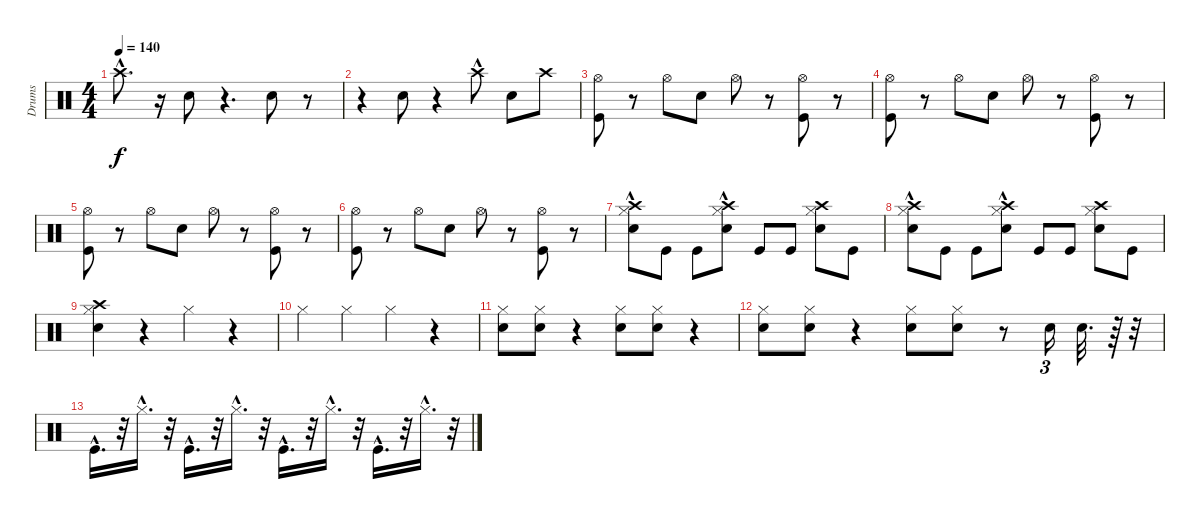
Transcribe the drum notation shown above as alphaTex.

\track ("Drums" "Drums") {instrument percussion}
\staff {score}
\articulation defaults
\ts (4 4)
\tempo 140
\clef neutral
\ks c "Crash high (hit)"{hac}.8{d dy f}
r.16 "Electric Snare (hit)".8 r.4{d} "Electric Snare (hit)".8 r.8 |
r.4 "Electric Snare (hit)".8 r.4 "Crash high (hit)"{hac}.8 "Electric Snare (hit)".8 "Crash high (hit)".8 |
("Kick (hit)" "Hi-Hat (open)").8 r.8 "Hi-Hat (open)".8 "Electric Snare (hit)".8 "Hi-Hat (open)".8 r.8 ("Kick (hit)" "Hi-Hat (open)").8 r.8 |
("Kick (hit)" "Hi-Hat (open)").8 r.8 "Hi-Hat (open)".8 "Electric Snare (hit)".8 "Hi-Hat (open)".8 r.8 ("Kick (hit)" "Hi-Hat (open)").8 r.8 |
("Kick (hit)" "Hi-Hat (open)").8 r.8 "Hi-Hat (open)".8 "Electric Snare (hit)".8 "Hi-Hat (open)".8 r.8 ("Kick (hit)" "Hi-Hat (open)").8 r.8 |
("Kick (hit)" "Hi-Hat (open)").8 r.8 "Hi-Hat (open)".8 "Electric Snare (hit)".8 "Hi-Hat (open)".8 r.8 ("Kick (hit)" "Hi-Hat (open)").8 r.8 |
("Hi-Hat (closed)"{hac} "Electric Snare (hit)" "Crash high (hit)").8 "Kick (hit)".8 "Kick (hit)".8 ("Electric Snare (hit)" "Hi-Hat (closed)"{hac} "Crash high (hit)").8 "Kick (hit)".8 "Kick (hit)".8 ("Electric Snare (hit)" "Hi-Hat (closed)" "Crash high (hit)").8 "Kick (hit)".8 |
("Crash high (hit)" "Hi-Hat (closed)"{hac} "Electric Snare (hit)").8 "Kick (hit)".8 "Kick (hit)".8 ("Crash high (hit)" "Electric Snare (hit)" "Hi-Hat (closed)"{hac}).8 "Kick (hit)".8 "Kick (hit)".8 ("Crash high (hit)" "Electric Snare (hit)" "Hi-Hat (closed)").8 "Kick (hit)".8 |
("Hi-Hat (closed)" "Crash high (hit)" "Electric Snare (hit)").4 r.4 "Hi-Hat (closed)".4 r.4 |
"Hi-Hat (closed)".4 "Hi-Hat (closed)".4 "Hi-Hat (closed)".4 r.4 |
("Hi-Hat (closed)" "Electric Snare (hit)").8 ("Hi-Hat (closed)" "Electric Snare (hit)").8 r.4 ("Hi-Hat (closed)" "Electric Snare (hit)").8 ("Hi-Hat (closed)" "Electric Snare (hit)").8 r.4 |
("Hi-Hat (closed)" "Electric Snare (hit)").8 ("Hi-Hat (closed)" "Electric Snare (hit)").8 r.4 ("Hi-Hat (closed)" "Electric Snare (hit)").8 ("Hi-Hat (closed)" "Electric Snare (hit)").8 r.8 "Electric Snare (hit)".16{tu (3 2)} "Electric Snare (hit)".32{d} r.64 r.32 |
"Kick (hit)"{hac}.16{d} r.32 "Hi-Hat (closed)"{hac}.16{d} r.32 "Kick (hit)"{hac}.16{d} r.32 "Hi-Hat (closed)"{hac}.16{d} r.32 "Kick (hit)"{hac}.16{d} r.32 "Hi-Hat (closed)"{hac}.16{d} r.32 "Kick (hit)"{hac}.16{d} r.32 "Hi-Hat (closed)"{hac}.16{d} r.32
